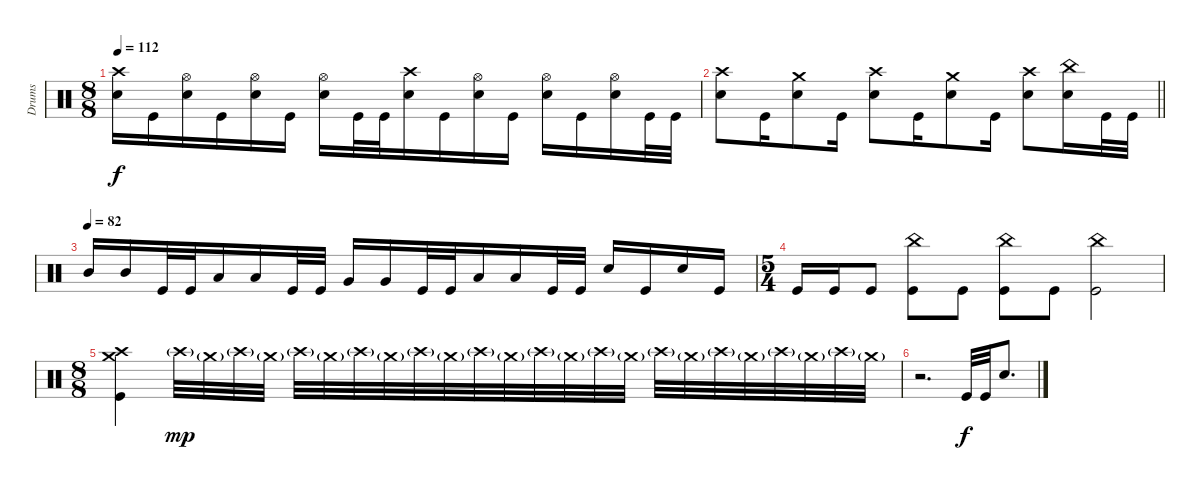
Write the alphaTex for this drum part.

\track ("Drums" "Drums") {instrument percussion}
\staff
\articulation defaults
\ts (8 8)
\tempo 112
\clef neutral
\ks c
("Crash high (hit)" "Electric Snare (hit)").16{dy f} "Kick (hit)".16 ("Hi-Hat (open)" "Electric Snare (hit)").16 "Kick (hit)".16 ("Hi-Hat (open)" "Electric Snare (hit)").16 "Kick (hit)".16 ("Hi-Hat (open)" "Electric Snare (hit)").16 "Kick (hit)".32 "Kick (hit)".32 ("Crash high (hit)" "Electric Snare (hit)").16 "Kick (hit)".16 ("Hi-Hat (open)" "Electric Snare (hit)").16 "Kick (hit)".16 ("Hi-Hat (open)" "Electric Snare (hit)").16 "Kick (hit)".16 ("Hi-Hat (open)" "Electric Snare (hit)").16 "Kick (hit)".32 "Kick (hit)".32 |
\barLineRight lightlight
("Crash high (hit)" "Electric Snare (hit)").8 "Kick (hit)".16 ("Crash medium (hit)" "Electric Snare (hit)").8 "Kick (hit)".16 ("Crash high (hit)" "Electric Snare (hit)").8 "Kick (hit)".16 ("Crash medium (hit)" "Electric Snare (hit)").8 "Kick (hit)".16 ("Crash high (hit)" "Electric Snare (hit)").8 ("China (hit)" "Electric Snare (hit)").16 "Kick (hit)".32 "Kick (hit)".32 |
\tempo (82)
"Mid Tom (hit)".16 "Mid Tom (hit)".16 "Kick (hit)".32 "Kick (hit)".32 "Low Tom (hit)".16 "Low Tom (hit)".16 "Kick (hit)".32 "Kick (hit)".32 "Very Low Tom (hit)".16 "Very Low Tom (hit)".16 "Kick (hit)".32 "Kick (hit)".32 "Low Floor Tom (hit)".16 "Low Floor Tom (hit)".16 "Kick (hit)".32 "Kick (hit)".32 "Electric Snare (hit)".16 "Kick (hit)".16 "Electric Snare (hit)".16 "Kick (hit)".16 |
\ts (5 4)
"Kick (hit)".16 "Kick (hit)".16 "Kick (hit)".8 ("China (hit)" "Kick (hit)").8 "Kick (hit)".8 ("China (hit)" "Kick (hit)").8 "Kick (hit)".8 ("China (hit)" "Kick (hit)").2 |
\ts (8 8)
("Crash high (hit)" "Crash medium (hit)" "Kick (hit)").4 "Crash high (hit)"{g}.32{dy mp} "Crash medium (hit)"{g}.32 "Crash high (hit)"{g}.32 "Crash medium (hit)"{g}.32 "Crash high (hit)"{g}.32 "Crash medium (hit)"{g}.32 "Crash high (hit)"{g}.32 "Crash medium (hit)"{g}.32 "Crash high (hit)"{g}.32 "Crash medium (hit)"{g}.32 "Crash high (hit)"{g}.32 "Crash medium (hit)"{g}.32 "Crash high (hit)"{g}.32 "Crash medium (hit)"{g}.32 "Crash high (hit)"{g}.32 "Crash medium (hit)"{g}.32 "Crash high (hit)"{g}.32 "Crash medium (hit)"{g}.32 "Crash high (hit)"{g}.32 "Crash medium (hit)"{g}.32 "Crash high (hit)"{g}.32 "Crash medium (hit)"{g}.32 "Crash high (hit)"{g}.32 "Crash medium (hit)"{g}.32 |
r.2{d} "Kick (hit)".32{dy f} "Kick (hit)".32 "Electric Snare (hit)".8{d}
